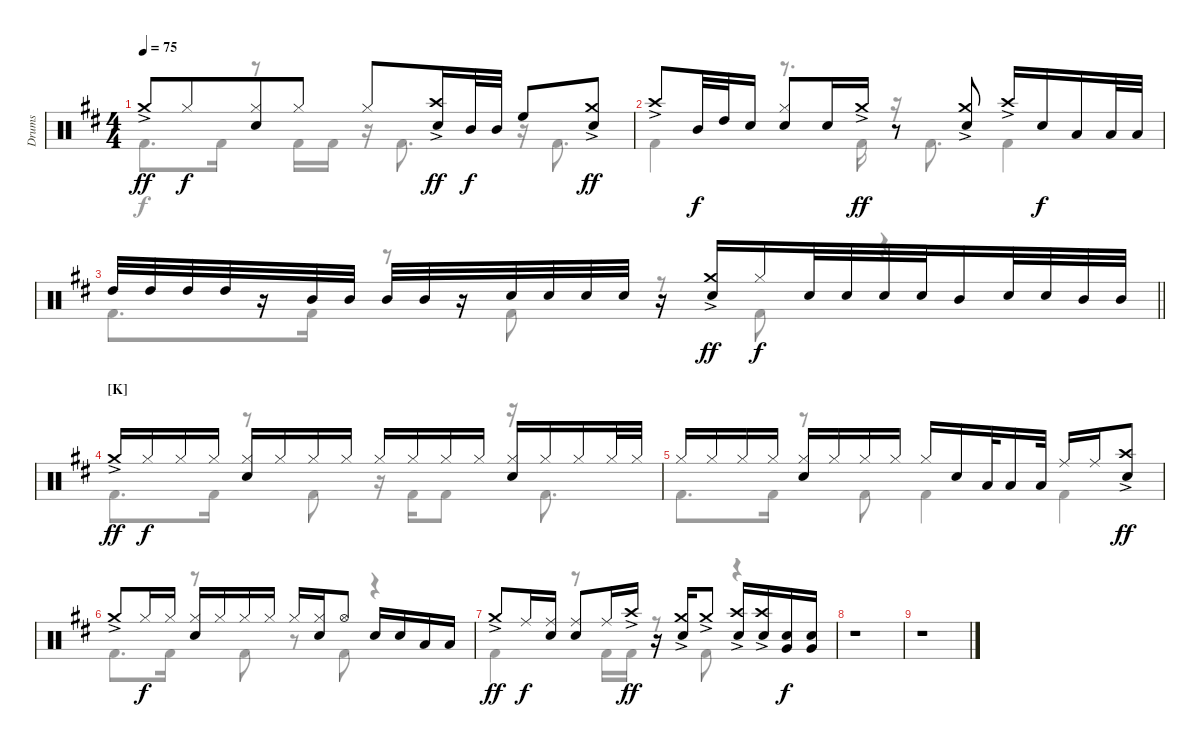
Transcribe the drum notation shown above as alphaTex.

\track ("Drums" "Drums") {instrument percussion}
\staff {score}
\articulation defaults
\voice
\ts (4 4)
\tempo 75
\clef neutral
\ks bminor "Crash medium (hit)"{ac}.8{dy ff} "Hi-Hat (closed)".8{dy f beam merge}
("Hi-Hat (closed)" "Snare (hit) 2").8 "Hi-Hat (closed)".8 "Hi-Hat (closed)".8{beam merge} ("Crash high (hit)"{ac} "Snare (hit) 2").16{dy ff} "Mid Tom (hit)".32{dy f} "Mid Tom (hit)".32 "High Floor Tom (hit)".8 ("Crash medium (hit)"{ac} "Snare (hit) 2").8{dy ff} |
"Crash high (hit)"{ac}.8 "Mid Tom (hit)".32{dy f} "High Tom (hit)".32 "Snare (hit) 2".16 ("Hi-Hat (closed)" "Snare (hit) 2").8 "Snare (hit) 2".16 "Crash medium (hit)"{ac}.16{dy ff} r.8 ("Crash medium (hit)"{ac} "Snare (hit) 2").8 "Crash high (hit)"{ac}.16 "Snare (hit) 2".16{dy f} "Low Tom (hit)".16 "Low Tom (hit)".32 "Low Tom (hit)".32 |
\barLineRight lightlight "High Tom (hit)".32 "High Tom (hit)".32 "High Tom (hit)".32 "High Tom (hit)".32
r.16 "Mid Tom (hit)".32 "Mid Tom (hit)".32 "Mid Tom (hit)".32 "Mid Tom (hit)".32 r.16 "Snare (hit) 2".32 "Snare (hit) 2".32 "Snare (hit) 2".32 "Snare (hit) 2".32 r.16 ("Crash medium (hit)"{ac} "Snare (hit) 2").16{dy ff} "Hi-Hat (closed)".16{dy f} "Snare (hit) 2".32 "Snare (hit) 2".32{beam merge} "Snare (hit) 2".32 "Snare (hit) 2".32 "Mid Tom (hit)".16 "Snare (hit) 2".32 "Snare (hit) 2".32 "Mid Tom (hit)".32{beam merge} "Mid Tom (hit)".32 |
\section ("" "[K]")
"Crash medium (hit)"{ac}.16{dy ff} "Hi-Hat (closed)".16{dy f} "Hi-Hat (closed)".16 "Hi-Hat (closed)".16 ("Hi-Hat (closed)" "Snare (hit) 2").16 "Hi-Hat (closed)".16 "Hi-Hat (closed)".16 "Hi-Hat (closed)".16 "Hi-Hat (closed)".16 "Hi-Hat (closed)".16 "Hi-Hat (closed)".16 "Hi-Hat (closed)".16 ("Hi-Hat (closed)" "Snare (hit) 2").16 "Hi-Hat (closed)".16 "Hi-Hat (closed)".16 "Hi-Hat (closed)".32{beam merge} "Hi-Hat (closed)".32 |
"Hi-Hat (closed)".16 "Hi-Hat (closed)".16 "Hi-Hat (closed)".16 "Hi-Hat (closed)".16 ("Hi-Hat (closed)" "Snare (hit) 2").16 "Hi-Hat (closed)".16 "Hi-Hat (closed)".16 "Hi-Hat (closed)".16 "Hi-Hat (closed)".16 "Snare (hit) 2".16{beam merge} "Low Tom (hit)".32 "Low Tom (hit)".16 "Low Tom (hit)".32 "Ride (middle)".16 "Ride (middle)".16 ("Crash high (hit)"{ac} "Snare (hit) 2").8{dy ff} |
"Crash medium (hit)"{ac}.8 "Hi-Hat (closed)".16{dy f} "Hi-Hat (closed)".16 ("Hi-Hat (closed)" "Snare (hit) 2").16 "Hi-Hat (closed)".16 "Hi-Hat (closed)".16 "Hi-Hat (closed)".16 "Hi-Hat (closed)".16 ("Hi-Hat (closed)" "Snare (hit) 2").16 "Hi-Hat (open)".8 "Snare (hit) 2".16 "Snare (hit) 2".16 "Low Tom (hit)".16 "Low Tom (hit)".16 |
"Crash medium (hit)"{ac}.8{dy ff beam merge} "Ride (middle)".16{dy f} ("Ride (middle)" "Snare (hit) 2").16 ("Ride (middle)" "Snare (hit) 2").8 "Ride (middle)".16 "Crash high (hit)"{ac}.16{dy ff} r.16 ("Crash medium (hit)"{ac} "Snare (hit) 2").16 "Crash medium (hit)"{ac}.8 ("Crash high (hit)"{ac} "Snare (hit) 2").16 ("Crash high (hit)"{ac} "Snare (hit) 2").16{beam merge} ("Snare (hit) 2" "Very Low Tom (hit)").16{dy f beam merge} ("Snare (hit) 2" "Very Low Tom (hit)").16 |
r.1 |
r.1
\voice
\clef neutral
\ottava regular
\simile none
\ks bminor "Kick (hit) 2".8{d dy f} "Kick (hit) 2".16
r.8 "Kick (hit) 2".16 "Kick (hit) 2".16 r.16 "Kick (hit) 2".8{d} r.16 "Kick (hit) 2".8{d} |
"Kick (hit) 2".4 r.8{d} "Kick (hit) 2".16 r.16 "Kick (hit) 2".8{d} "Kick (hit) 2".4 |
\barLineRight lightlight "Kick (hit) 2".8{d} "Kick (hit) 2".16
r.8 "Kick (hit) 2".8 r.8 "Kick (hit) 2".8 r.4 |
"Kick (hit) 2".8{d} "Kick (hit) 2".16 r.8 "Kick (hit) 2".8 r.16 "Kick (hit) 2".16 "Kick (hit) 2".8 r.16 "Kick (hit) 2".8{d} |
"Kick (hit) 2".8{d} "Kick (hit) 2".16 r.8 "Kick (hit) 2".8 "Kick (hit) 2".4 "Kick (hit) 2".4 |
"Kick (hit) 2".8{d} "Kick (hit) 2".16 r.8 "Kick (hit) 2".8 r.8 "Kick (hit) 2".8 r.4 |
"Kick (hit) 2".4 r.8 "Kick (hit) 2".16 "Kick (hit) 2".16 r.8 "Kick (hit) 2".8 r.4 |
r.1 |
r.1
